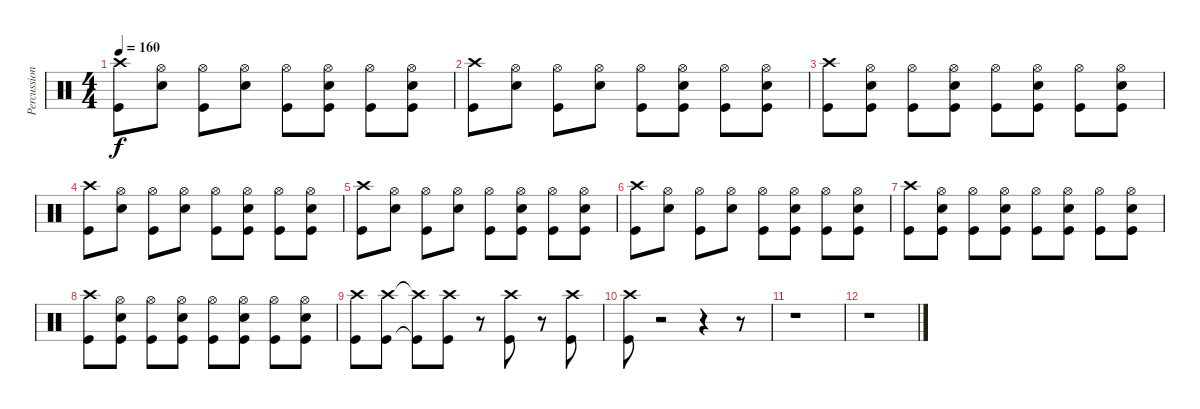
\track ("Percussion" "Percussion") {instrument percussion}
\staff {score}
\articulation defaults
\ts (4 4)
\tempo 160
\clef neutral
\ks c
("Crash high (hit)" "Kick (hit)").8{dy f} ("Hi-Hat (open)" "Snare (hit) 2").8 ("Hi-Hat (open)" "Kick (hit)").8 ("Hi-Hat (open)" "Snare (hit) 2").8 ("Hi-Hat (open)" "Kick (hit)").8 ("Hi-Hat (open)" "Snare (hit) 2" "Kick (hit)").8 ("Hi-Hat (open)" "Kick (hit)").8 ("Hi-Hat (open)" "Snare (hit) 2" "Kick (hit)").8 |
("Crash high (hit)" "Kick (hit)").8 ("Hi-Hat (open)" "Snare (hit) 2").8 ("Hi-Hat (open)" "Kick (hit)").8 ("Hi-Hat (open)" "Snare (hit) 2").8 ("Hi-Hat (open)" "Kick (hit)").8 ("Hi-Hat (open)" "Snare (hit) 2" "Kick (hit)").8 ("Hi-Hat (open)" "Kick (hit)").8 ("Hi-Hat (open)" "Snare (hit) 2" "Kick (hit)").8 |
("Crash high (hit)" "Kick (hit)").8 ("Hi-Hat (open)" "Snare (hit) 2" "Kick (hit)").8 ("Hi-Hat (open)" "Kick (hit)").8 ("Hi-Hat (open)" "Snare (hit) 2" "Kick (hit)").8 ("Hi-Hat (open)" "Kick (hit)").8 ("Hi-Hat (open)" "Snare (hit) 2" "Kick (hit)").8 ("Hi-Hat (open)" "Kick (hit)").8 ("Hi-Hat (open)" "Snare (hit) 2" "Kick (hit)").8 |
("Crash high (hit)" "Kick (hit)").8 ("Hi-Hat (open)" "Snare (hit) 2").8 ("Hi-Hat (open)" "Kick (hit)").8 ("Hi-Hat (open)" "Snare (hit) 2").8 ("Hi-Hat (open)" "Kick (hit)").8 ("Hi-Hat (open)" "Snare (hit) 2" "Kick (hit)").8 ("Hi-Hat (open)" "Kick (hit)").8 ("Hi-Hat (open)" "Snare (hit) 2" "Kick (hit)").8 |
("Crash high (hit)" "Kick (hit)").8 ("Hi-Hat (open)" "Snare (hit) 2").8 ("Hi-Hat (open)" "Kick (hit)").8 ("Hi-Hat (open)" "Snare (hit) 2").8 ("Hi-Hat (open)" "Kick (hit)").8 ("Hi-Hat (open)" "Snare (hit) 2" "Kick (hit)").8 ("Hi-Hat (open)" "Kick (hit)").8 ("Hi-Hat (open)" "Snare (hit) 2" "Kick (hit)").8 |
("Crash high (hit)" "Kick (hit)").8 ("Hi-Hat (open)" "Snare (hit) 2").8 ("Hi-Hat (open)" "Kick (hit)").8 ("Hi-Hat (open)" "Snare (hit) 2").8 ("Hi-Hat (open)" "Kick (hit)").8 ("Hi-Hat (open)" "Snare (hit) 2" "Kick (hit)").8 ("Hi-Hat (open)" "Kick (hit)").8 ("Hi-Hat (open)" "Snare (hit) 2" "Kick (hit)").8 |
("Crash high (hit)" "Kick (hit)").8 ("Hi-Hat (open)" "Snare (hit) 2" "Kick (hit)").8 ("Hi-Hat (open)" "Kick (hit)").8 ("Hi-Hat (open)" "Snare (hit) 2" "Kick (hit)").8 ("Hi-Hat (open)" "Kick (hit)").8 ("Hi-Hat (open)" "Snare (hit) 2" "Kick (hit)").8 ("Hi-Hat (open)" "Kick (hit)").8 ("Hi-Hat (open)" "Snare (hit) 2" "Kick (hit)").8 |
("Crash high (hit)" "Kick (hit)").8 ("Hi-Hat (open)" "Snare (hit) 2" "Kick (hit)").8 ("Hi-Hat (open)" "Kick (hit)").8 ("Hi-Hat (open)" "Snare (hit) 2" "Kick (hit)").8 ("Hi-Hat (open)" "Kick (hit)").8 ("Hi-Hat (open)" "Snare (hit) 2" "Kick (hit)").8 ("Hi-Hat (open)" "Kick (hit)").8 ("Hi-Hat (open)" "Snare (hit) 2" "Kick (hit)").8 |
("Kick (hit)" "Crash high (hit)").8 ("Kick (hit)" "Crash high (hit)").8 ("Kick (hit)"{t} "Crash high (hit)"{t}).8 ("Crash high (hit)" "Kick (hit)").8 r.8 ("Kick (hit)" "Crash high (hit)").8 r.8 ("Kick (hit)" "Crash high (hit)").8 |
("Kick (hit)" "Crash high (hit)").8 r.2 r.4 r.8 |
r.1 |
r.1
